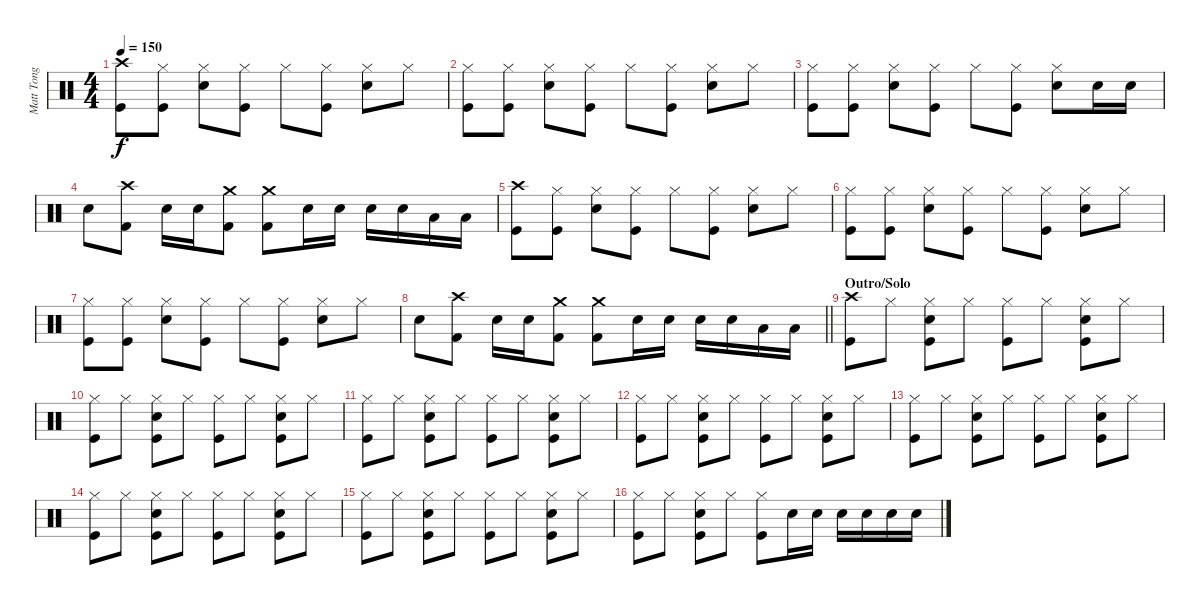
\track ("Matt Tong (Drums)" "Matt Tong ") {instrument percussion}
\staff {score}
\articulation defaults
\ts (4 4)
\tempo 150
\clef neutral
\ks c
("Crash high (hit)" "Kick (hit)").8{dy f} ("Hi-Hat (closed)" "Kick (hit)").8 ("Hi-Hat (closed)" "Electric Snare (hit)").8 ("Hi-Hat (closed)" "Kick (hit)").8 "Hi-Hat (closed)".8 ("Hi-Hat (closed)" "Kick (hit)").8 ("Hi-Hat (closed)" "Electric Snare (hit)").8 "Hi-Hat (closed)".8 |
("Hi-Hat (closed)" "Kick (hit)").8 ("Hi-Hat (closed)" "Kick (hit)").8 ("Hi-Hat (closed)" "Electric Snare (hit)").8 ("Hi-Hat (closed)" "Kick (hit)").8 "Hi-Hat (closed)".8 ("Hi-Hat (closed)" "Kick (hit)").8 ("Hi-Hat (closed)" "Electric Snare (hit)").8 "Hi-Hat (closed)".8 |
("Hi-Hat (closed)" "Kick (hit)").8 ("Hi-Hat (closed)" "Kick (hit)").8 ("Hi-Hat (closed)" "Electric Snare (hit)").8 ("Hi-Hat (closed)" "Kick (hit)").8 "Hi-Hat (closed)".8 ("Hi-Hat (closed)" "Kick (hit)").8 ("Hi-Hat (closed)" "Electric Snare (hit)").8 "Electric Snare (hit)".16 "Electric Snare (hit)".16 |
"Electric Snare (hit)".8 ("Crash high (hit)" "Kick (hit) 2").8 "Electric Snare (hit)".16 "Electric Snare (hit)".16 ("Crash medium (hit)" "Kick (hit) 2").8 ("Crash medium (hit)" "Kick (hit) 2").8 "Electric Snare (hit)".16 "Electric Snare (hit)".16 "Electric Snare (hit)".16 "Electric Snare (hit)".16 "Low Tom (hit)".16 "Low Tom (hit)".16 |
("Crash high (hit)" "Kick (hit)").8 ("Hi-Hat (closed)" "Kick (hit)").8 ("Hi-Hat (closed)" "Electric Snare (hit)").8 ("Hi-Hat (closed)" "Kick (hit)").8 "Hi-Hat (closed)".8 ("Hi-Hat (closed)" "Kick (hit)").8 ("Hi-Hat (closed)" "Electric Snare (hit)").8 "Hi-Hat (closed)".8 |
("Hi-Hat (closed)" "Kick (hit)").8 ("Hi-Hat (closed)" "Kick (hit)").8 ("Hi-Hat (closed)" "Electric Snare (hit)").8 ("Hi-Hat (closed)" "Kick (hit)").8 "Hi-Hat (closed)".8 ("Hi-Hat (closed)" "Kick (hit)").8 ("Hi-Hat (closed)" "Electric Snare (hit)").8 "Hi-Hat (closed)".8 |
("Hi-Hat (closed)" "Kick (hit)").8 ("Hi-Hat (closed)" "Kick (hit)").8 ("Hi-Hat (closed)" "Electric Snare (hit)").8 ("Hi-Hat (closed)" "Kick (hit)").8 "Hi-Hat (closed)".8 ("Hi-Hat (closed)" "Kick (hit)").8 ("Hi-Hat (closed)" "Electric Snare (hit)").8 "Hi-Hat (closed)".8 |
\barLineRight lightlight "Electric Snare (hit)".8
("Crash high (hit)" "Kick (hit) 2").8 "Electric Snare (hit)".16 "Electric Snare (hit)".16 ("Crash medium (hit)" "Kick (hit) 2").8 ("Crash medium (hit)" "Kick (hit) 2").8 "Electric Snare (hit)".16 "Electric Snare (hit)".16 "Electric Snare (hit)".16 "Electric Snare (hit)".16 "Low Tom (hit)".16 "Low Tom (hit)".16 |
\section ("" "Outro/Solo")
("Crash high (hit)" "Kick (hit)").8 "Hi-Hat (closed)".8 ("Hi-Hat (closed)" "Electric Snare (hit)" "Kick (hit)").8 "Hi-Hat (closed)".8 ("Hi-Hat (closed)" "Kick (hit)").8 "Hi-Hat (closed)".8 ("Hi-Hat (closed)" "Electric Snare (hit)" "Kick (hit)").8 "Hi-Hat (closed)".8 |
("Hi-Hat (closed)" "Kick (hit)").8 "Hi-Hat (closed)".8 ("Hi-Hat (closed)" "Electric Snare (hit)" "Kick (hit)").8 "Hi-Hat (closed)".8 ("Hi-Hat (closed)" "Kick (hit)").8 "Hi-Hat (closed)".8 ("Hi-Hat (closed)" "Electric Snare (hit)" "Kick (hit)").8 "Hi-Hat (closed)".8 |
("Hi-Hat (closed)" "Kick (hit)").8 "Hi-Hat (closed)".8 ("Hi-Hat (closed)" "Electric Snare (hit)" "Kick (hit)").8 "Hi-Hat (closed)".8 ("Hi-Hat (closed)" "Kick (hit)").8 "Hi-Hat (closed)".8 ("Hi-Hat (closed)" "Electric Snare (hit)" "Kick (hit)").8 "Hi-Hat (closed)".8 |
("Hi-Hat (closed)" "Kick (hit)").8 "Hi-Hat (closed)".8 ("Hi-Hat (closed)" "Electric Snare (hit)" "Kick (hit)").8 "Hi-Hat (closed)".8 ("Hi-Hat (closed)" "Kick (hit)").8 "Hi-Hat (closed)".8 ("Hi-Hat (closed)" "Electric Snare (hit)" "Kick (hit)").8 "Hi-Hat (closed)".8 |
("Hi-Hat (closed)" "Kick (hit)").8 "Hi-Hat (closed)".8 ("Hi-Hat (closed)" "Electric Snare (hit)" "Kick (hit)").8 "Hi-Hat (closed)".8 ("Hi-Hat (closed)" "Kick (hit)").8 "Hi-Hat (closed)".8 ("Hi-Hat (closed)" "Electric Snare (hit)" "Kick (hit)").8 "Hi-Hat (closed)".8 |
("Hi-Hat (closed)" "Kick (hit)").8 "Hi-Hat (closed)".8 ("Hi-Hat (closed)" "Electric Snare (hit)" "Kick (hit)").8 "Hi-Hat (closed)".8 ("Hi-Hat (closed)" "Kick (hit)").8 "Hi-Hat (closed)".8 ("Hi-Hat (closed)" "Electric Snare (hit)" "Kick (hit)").8 "Hi-Hat (closed)".8 |
("Hi-Hat (closed)" "Kick (hit)").8 "Hi-Hat (closed)".8 ("Hi-Hat (closed)" "Electric Snare (hit)" "Kick (hit)").8 "Hi-Hat (closed)".8 ("Hi-Hat (closed)" "Kick (hit)").8 "Hi-Hat (closed)".8 ("Hi-Hat (closed)" "Electric Snare (hit)" "Kick (hit)").8 "Hi-Hat (closed)".8 |
("Hi-Hat (closed)" "Kick (hit)").8 "Hi-Hat (closed)".8 ("Hi-Hat (closed)" "Electric Snare (hit)" "Kick (hit)").8 "Hi-Hat (closed)".8 ("Hi-Hat (closed)" "Kick (hit)").8 "Electric Snare (hit)".16 "Electric Snare (hit)".16 "Electric Snare (hit)".16 "Electric Snare (hit)".16 "Electric Snare (hit)".16 "Electric Snare (hit)".16
